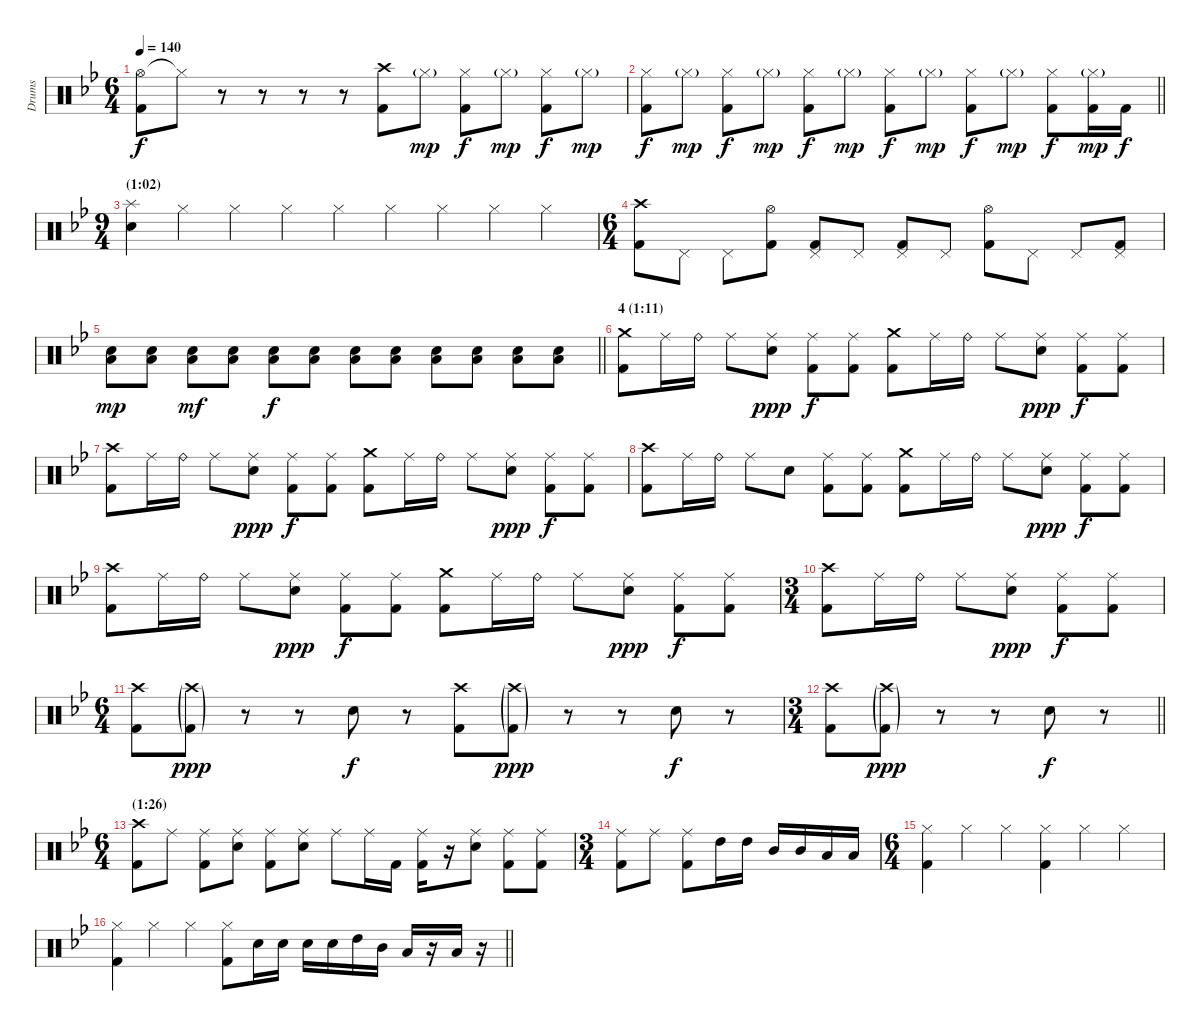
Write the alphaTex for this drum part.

\track ("Drums" "Drums") {instrument percussion}
\staff {score}
\articulation defaults
\ts (6 4)
\tempo 140
\clef neutral
\ks gminor
("Hi-Hat (open)" "Kick (hit) 2").8{dy f} "Hi-Hat (closed)"{t}.8 r.8 r.8 r.8 r.8 ("Crash high (hit)" "Kick (hit) 2").8 "Hi-Hat (closed)"{g}.8{dy mp} ("Hi-Hat (closed)" "Kick (hit) 2").8{dy f} "Hi-Hat (closed)"{g}.8{dy mp} ("Hi-Hat (closed)" "Kick (hit) 2").8{dy f} "Hi-Hat (closed)"{g}.8{dy mp} |
\barLineRight lightlight
("Hi-Hat (closed)" "Kick (hit) 2").8{dy f} "Hi-Hat (closed)"{g}.8{dy mp} ("Hi-Hat (closed)" "Kick (hit) 2").8{dy f} "Hi-Hat (closed)"{g}.8{dy mp} ("Hi-Hat (closed)" "Kick (hit) 2").8{dy f} "Hi-Hat (closed)"{g}.8{dy mp} ("Hi-Hat (closed)" "Kick (hit) 2").8{dy f} "Hi-Hat (closed)"{g}.8{dy mp} ("Hi-Hat (closed)" "Kick (hit) 2").8{dy f} "Hi-Hat (closed)"{g}.8{dy mp} ("Hi-Hat (closed)" "Kick (hit) 2").8{dy f} ("Hi-Hat (closed)"{g} "Kick (hit) 2").16{dy mp} "Kick (hit) 2".16{dy f} |
\ts (9 4)
\section ("" "(1:02)")
("Splash (hit)" "Snare (hit) 2").4 "Hi-Hat (closed)".4 "Hi-Hat (closed)".4 "Hi-Hat (closed)".4 "Hi-Hat (closed)".4 "Hi-Hat (closed)".4 "Hi-Hat (closed)".4 "Hi-Hat (closed)".4 "Hi-Hat (closed)".4 |
\ts (6 4)
("Crash high (hit)" "Kick (hit) 2").8 "Pedal Hi-Hat (hit)".8 "Pedal Hi-Hat (hit)".8 ("Hi-Hat (open)" "Kick (hit) 2").8 ("Pedal Hi-Hat (hit)" "Kick (hit) 2").8 "Pedal Hi-Hat (hit)".8 ("Pedal Hi-Hat (hit)" "Kick (hit) 2").8 "Pedal Hi-Hat (hit)".8 ("Hi-Hat (open)" "Kick (hit) 2").8 "Pedal Hi-Hat (hit)".8 "Pedal Hi-Hat (hit)".8 ("Pedal Hi-Hat (hit)" "Kick (hit) 2").8 |
\barLineRight lightlight
("Low Tom (hit)" "Snare (hit) 2").8{dy mp} ("Low Tom (hit)" "Snare (hit) 2").8 ("Low Tom (hit)" "Snare (hit) 2").8{dy mf} ("Low Tom (hit)" "Snare (hit) 2").8 ("Low Tom (hit)" "Snare (hit) 2").8{dy f} ("Low Tom (hit)" "Snare (hit) 2").8 ("Low Tom (hit)" "Snare (hit) 2").8 ("Low Tom (hit)" "Snare (hit) 2").8 ("Low Tom (hit)" "Snare (hit) 2").8 ("Low Tom (hit)" "Snare (hit) 2").8 ("Low Tom (hit)" "Snare (hit) 2").8 ("Low Tom (hit)" "Snare (hit) 2").8 |
\section ("" "4 (1:11)")
("Crash medium (hit)" "Kick (hit) 2").8 "Ride (middle)".16 "Ride (bell)".16 "Ride (middle)".8 ("Ride (middle)" "Snare (hit) 2").8{dy ppp} ("Ride (middle)" "Kick (hit) 2").8{dy f} ("Ride (middle)" "Kick (hit) 2").8 ("Crash medium (hit)" "Kick (hit) 2").8 "Ride (middle)".16 "Ride (bell)".16 "Ride (middle)".8 ("Ride (middle)" "Snare (hit) 2").8{dy ppp} ("Ride (middle)" "Kick (hit) 2").8{dy f} ("Ride (middle)" "Kick (hit) 2").8 |
("Crash high (hit)" "Kick (hit) 2").8 "Ride (middle)".16 "Ride (bell)".16 "Ride (middle)".8 ("Ride (middle)" "Snare (hit) 2").8{dy ppp} ("Ride (middle)" "Kick (hit) 2").8{dy f} ("Ride (middle)" "Kick (hit) 2").8 ("Crash medium (hit)" "Kick (hit) 2").8 "Ride (middle)".16 "Ride (bell)".16 "Ride (middle)".8 ("Ride (middle)" "Snare (hit) 2").8{dy ppp} ("Ride (middle)" "Kick (hit) 2").8{dy f} ("Ride (middle)" "Kick (hit) 2").8 |
("Crash high (hit)" "Kick (hit) 2").8 "Ride (middle)".16 "Ride (bell)".16 "Ride (middle)".8 "Snare (hit) 2".8 ("Ride (middle)" "Kick (hit) 2").8 ("Ride (middle)" "Kick (hit) 2").8 ("Crash medium (hit)" "Kick (hit) 2").8 "Ride (middle)".16 "Ride (bell)".16 "Ride (middle)".8 ("Ride (middle)" "Snare (hit) 2").8{dy ppp} ("Ride (middle)" "Kick (hit) 2").8{dy f} ("Ride (middle)" "Kick (hit) 2").8 |
("Crash high (hit)" "Kick (hit) 2").8 "Ride (middle)".16 "Ride (bell)".16 "Ride (middle)".8 ("Ride (middle)" "Snare (hit) 2").8{dy ppp} ("Ride (middle)" "Kick (hit) 2").8{dy f} ("Ride (middle)" "Kick (hit) 2").8 ("Crash medium (hit)" "Kick (hit) 2").8 "Ride (middle)".16 "Ride (bell)".16 "Ride (middle)".8 ("Ride (middle)" "Snare (hit) 2").8{dy ppp} ("Ride (middle)" "Kick (hit) 2").8{dy f} ("Ride (middle)" "Kick (hit) 2").8 |
\ts (3 4)
("Crash high (hit)" "Kick (hit) 2").8 "Ride (middle)".16 "Ride (bell)".16 "Ride (middle)".8 ("Ride (middle)" "Snare (hit) 2").8{dy ppp} ("Ride (middle)" "Kick (hit) 2").8{dy f} ("Ride (middle)" "Kick (hit) 2").8 |
\ts (6 4)
("Crash high (hit)" "Kick (hit) 2").8 ("Crash high (hit)"{g} "Kick (hit) 2"{g}).8{dy ppp} r.8 r.8 "Snare (hit) 2".8{dy f} r.8 ("Crash high (hit)" "Kick (hit) 2").8 ("Crash high (hit)"{g} "Kick (hit) 2"{g}).8{dy ppp} r.8 r.8 "Snare (hit) 2".8{dy f} r.8 |
\ts (3 4)
\barLineRight lightlight
("Crash high (hit)" "Kick (hit) 2").8 ("Crash high (hit)"{g} "Kick (hit) 2"{g}).8{dy ppp} r.8 r.8 "Snare (hit) 2".8{dy f} r.8 |
\ts (6 4)
\section ("" "(1:26)")
("Crash high (hit)" "Kick (hit) 2").8 "Ride (middle)".8 ("Ride (middle)" "Kick (hit) 2").8 ("Ride (middle)" "Snare (hit) 2").8 ("Ride (middle)" "Kick (hit) 2").8 ("Ride (middle)" "Snare (hit) 2").8 "Ride (middle)".8 "Ride (middle)".16 "Kick (hit) 2".16 ("Ride (middle)" "Kick (hit) 2").16 r.16 ("Ride (middle)" "Snare (hit) 2").8 ("Ride (middle)" "Kick (hit) 2").8 ("Ride (middle)" "Kick (hit) 2").8 |
\ts (3 4)
("Ride (middle)" "Kick (hit) 2").8 "Ride (middle)".8 ("Ride (middle)" "Kick (hit) 2").8 "High Tom (hit)".16 "High Tom (hit)".16 "Mid Tom (hit)".16 "Mid Tom (hit)".16 "Low Tom (hit)".16 "Low Tom (hit)".16 |
\ts (6 4)
("Hi-Hat (closed)" "Kick (hit) 2").4 "Hi-Hat (closed)".4 "Hi-Hat (closed)".4 ("Hi-Hat (closed)" "Kick (hit) 2").4 "Hi-Hat (closed)".4 "Hi-Hat (closed)".4 |
\barLineRight lightlight
("Hi-Hat (closed)" "Kick (hit) 2").4 "Hi-Hat (closed)".4 "Hi-Hat (closed)".4 ("Hi-Hat (closed)" "Kick (hit) 2").8 "Snare (hit) 2".16 "Snare (hit) 2".16 "Snare (hit) 2".16 "Snare (hit) 2".16 "High Tom (hit)".16 "Mid Tom (hit)".16 "Low Tom (hit)".16 r.16 "Low Tom (hit)".16 r.16
